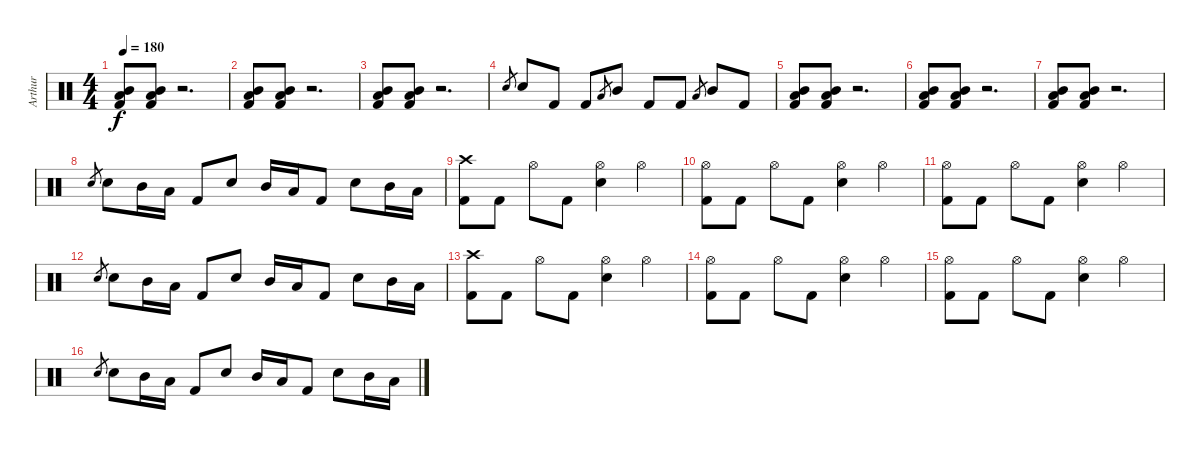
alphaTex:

\track ("Arthur" "Arthur") {instrument percussion}
\staff {score}
\articulation defaults
\ts (4 4)
\tempo 180
\clef neutral
\ks c
("Mid Tom (hit)" "Low Tom (hit)" "Kick (hit) 2").8{dy f} ("Mid Tom (hit)" "Low Tom (hit)" "Kick (hit) 2").8 r.2{d} |
("Mid Tom (hit)" "Low Tom (hit)" "Kick (hit) 2").8 ("Mid Tom (hit)" "Low Tom (hit)" "Kick (hit) 2").8 r.2{d} |
("Mid Tom (hit)" "Low Tom (hit)" "Kick (hit) 2").8 ("Mid Tom (hit)" "Low Tom (hit)" "Kick (hit) 2").8 r.2{d} |
"Electric Snare (hit)".8{gr} "Electric Snare (hit)".8 "Kick (hit) 2".8 "Kick (hit) 2".8 "Low Tom (hit)".8{gr} "Mid Tom (hit)".8 "Kick (hit) 2".8 "Kick (hit) 2".8 "Low Tom (hit)".8{gr} "Mid Tom (hit)".8 "Kick (hit) 2".8 |
("Mid Tom (hit)" "Low Tom (hit)" "Kick (hit) 2").8 ("Mid Tom (hit)" "Low Tom (hit)" "Kick (hit) 2").8 r.2{d} |
("Mid Tom (hit)" "Low Tom (hit)" "Kick (hit) 2").8 ("Mid Tom (hit)" "Low Tom (hit)" "Kick (hit) 2").8 r.2{d} |
("Mid Tom (hit)" "Low Tom (hit)" "Kick (hit) 2").8 ("Mid Tom (hit)" "Low Tom (hit)" "Kick (hit) 2").8 r.2{d} |
"Electric Snare (hit)".8{gr} "Electric Snare (hit)".8 "Mid Tom (hit)".16 "Low Tom (hit)".16 "Kick (hit) 2".8 "Electric Snare (hit)".8 "Mid Tom (hit)".16 "Low Tom (hit)".16 "Kick (hit) 2".8 "Electric Snare (hit)".8 "Mid Tom (hit)".16 "Low Tom (hit)".16 |
("Crash high (hit)" "Kick (hit) 2").8 "Kick (hit) 2".8 "Hi-Hat (open)".8 "Kick (hit) 2".8 ("Hi-Hat (open)" "Electric Snare (hit)").4 "Hi-Hat (open)".4 |
("Hi-Hat (open)" "Kick (hit) 2").8 "Kick (hit) 2".8 "Hi-Hat (open)".8 "Kick (hit) 2".8 ("Hi-Hat (open)" "Electric Snare (hit)").4 "Hi-Hat (open)".4 |
("Hi-Hat (open)" "Kick (hit) 2").8 "Kick (hit) 2".8 "Hi-Hat (open)".8 "Kick (hit) 2".8 ("Hi-Hat (open)" "Electric Snare (hit)").4 "Hi-Hat (open)".4 |
"Electric Snare (hit)".8{gr} "Electric Snare (hit)".8 "Mid Tom (hit)".16 "Low Tom (hit)".16 "Kick (hit) 2".8 "Electric Snare (hit)".8 "Mid Tom (hit)".16 "Low Tom (hit)".16 "Kick (hit) 2".8 "Electric Snare (hit)".8 "Mid Tom (hit)".16 "Low Tom (hit)".16 |
("Crash high (hit)" "Kick (hit) 2").8 "Kick (hit) 2".8 "Hi-Hat (open)".8 "Kick (hit) 2".8 ("Hi-Hat (open)" "Electric Snare (hit)").4 "Hi-Hat (open)".4 |
("Hi-Hat (open)" "Kick (hit) 2").8 "Kick (hit) 2".8 "Hi-Hat (open)".8 "Kick (hit) 2".8 ("Hi-Hat (open)" "Electric Snare (hit)").4 "Hi-Hat (open)".4 |
("Hi-Hat (open)" "Kick (hit) 2").8 "Kick (hit) 2".8 "Hi-Hat (open)".8 "Kick (hit) 2".8 ("Hi-Hat (open)" "Electric Snare (hit)").4 "Hi-Hat (open)".4 |
"Electric Snare (hit)".8{gr} "Electric Snare (hit)".8 "Mid Tom (hit)".16 "Low Tom (hit)".16 "Kick (hit) 2".8 "Electric Snare (hit)".8 "Mid Tom (hit)".16 "Low Tom (hit)".16 "Kick (hit) 2".8 "Electric Snare (hit)".8 "Mid Tom (hit)".16 "Low Tom (hit)".16
